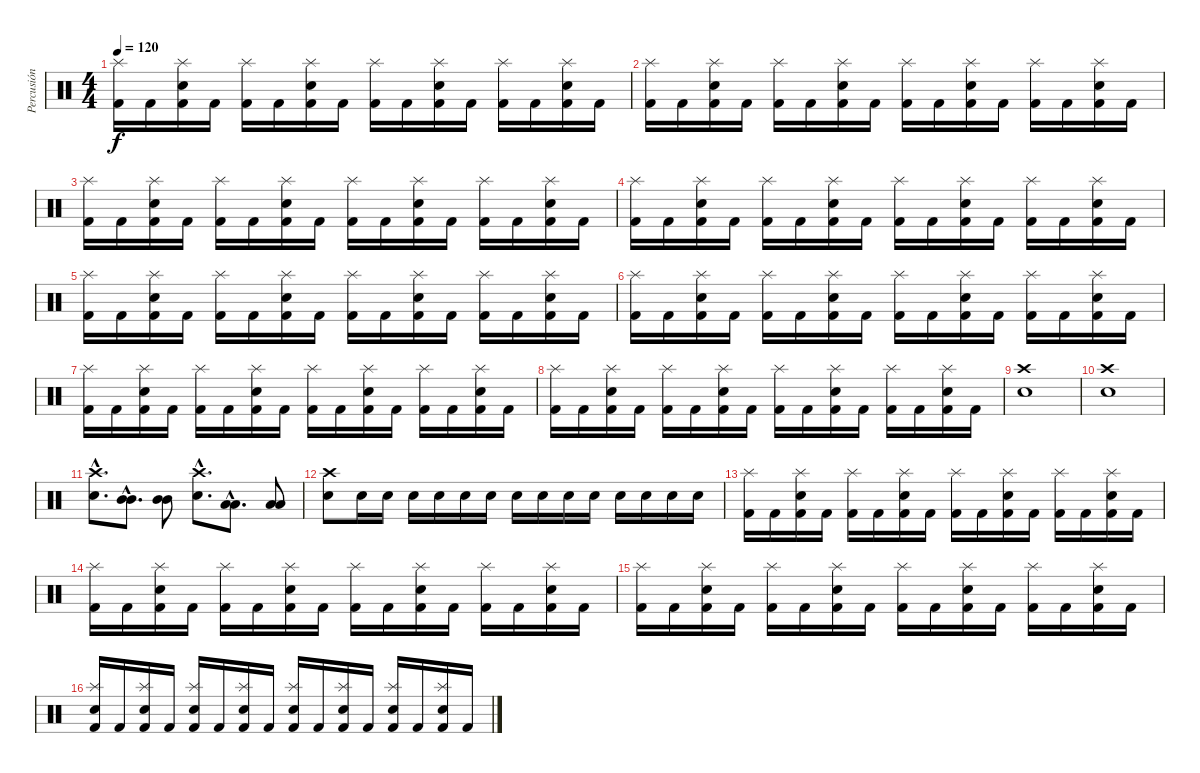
\track ("Percusión" "Percusión") {instrument percussion}
\staff {score}
\articulation defaults
\ts (4 4)
\tempo 120
\clef neutral
\ks c
("Kick (hit) 2" "Splash (hit)").16{dy f} "Kick (hit) 2".16 ("Kick (hit) 2" "Splash (hit)" "Electric Snare (hit)").16 "Kick (hit) 2".16 ("Kick (hit) 2" "Splash (hit)").16 "Kick (hit) 2".16 ("Kick (hit) 2" "Splash (hit)" "Electric Snare (hit)").16 "Kick (hit) 2".16 ("Kick (hit) 2" "Splash (hit)").16 "Kick (hit) 2".16 ("Kick (hit) 2" "Splash (hit)" "Electric Snare (hit)").16 "Kick (hit) 2".16 ("Kick (hit) 2" "Splash (hit)").16 "Kick (hit) 2".16 ("Kick (hit) 2" "Splash (hit)" "Electric Snare (hit)").16 "Kick (hit) 2".16 |
("Kick (hit) 2" "Splash (hit)").16 "Kick (hit) 2".16 ("Kick (hit) 2" "Splash (hit)" "Electric Snare (hit)").16 "Kick (hit) 2".16 ("Kick (hit) 2" "Splash (hit)").16 "Kick (hit) 2".16 ("Kick (hit) 2" "Splash (hit)" "Electric Snare (hit)").16 "Kick (hit) 2".16 ("Kick (hit) 2" "Splash (hit)").16 "Kick (hit) 2".16 ("Kick (hit) 2" "Splash (hit)" "Electric Snare (hit)").16 "Kick (hit) 2".16 ("Kick (hit) 2" "Splash (hit)").16 "Kick (hit) 2".16 ("Kick (hit) 2" "Splash (hit)" "Electric Snare (hit)").16 "Kick (hit) 2".16 |
("Kick (hit) 2" "Splash (hit)").16 "Kick (hit) 2".16 ("Kick (hit) 2" "Splash (hit)" "Electric Snare (hit)").16 "Kick (hit) 2".16 ("Kick (hit) 2" "Splash (hit)").16 "Kick (hit) 2".16 ("Kick (hit) 2" "Splash (hit)" "Electric Snare (hit)").16 "Kick (hit) 2".16 ("Kick (hit) 2" "Splash (hit)").16 "Kick (hit) 2".16 ("Kick (hit) 2" "Splash (hit)" "Electric Snare (hit)").16 "Kick (hit) 2".16 ("Kick (hit) 2" "Splash (hit)").16 "Kick (hit) 2".16 ("Kick (hit) 2" "Splash (hit)" "Electric Snare (hit)").16 "Kick (hit) 2".16 |
("Kick (hit) 2" "Splash (hit)").16 "Kick (hit) 2".16 ("Kick (hit) 2" "Splash (hit)" "Electric Snare (hit)").16 "Kick (hit) 2".16 ("Kick (hit) 2" "Splash (hit)").16 "Kick (hit) 2".16 ("Kick (hit) 2" "Splash (hit)" "Electric Snare (hit)").16 "Kick (hit) 2".16 ("Kick (hit) 2" "Splash (hit)").16 "Kick (hit) 2".16 ("Kick (hit) 2" "Splash (hit)" "Electric Snare (hit)").16 "Kick (hit) 2".16 ("Kick (hit) 2" "Splash (hit)").16 "Kick (hit) 2".16 ("Kick (hit) 2" "Splash (hit)" "Electric Snare (hit)").16 "Kick (hit) 2".16 |
("Kick (hit) 2" "Splash (hit)").16 "Kick (hit) 2".16 ("Kick (hit) 2" "Splash (hit)" "Electric Snare (hit)").16 "Kick (hit) 2".16 ("Kick (hit) 2" "Splash (hit)").16 "Kick (hit) 2".16 ("Kick (hit) 2" "Splash (hit)" "Electric Snare (hit)").16 "Kick (hit) 2".16 ("Kick (hit) 2" "Splash (hit)").16 "Kick (hit) 2".16 ("Kick (hit) 2" "Splash (hit)" "Electric Snare (hit)").16 "Kick (hit) 2".16 ("Kick (hit) 2" "Splash (hit)").16 "Kick (hit) 2".16 ("Kick (hit) 2" "Splash (hit)" "Electric Snare (hit)").16 "Kick (hit) 2".16 |
("Kick (hit) 2" "Splash (hit)").16 "Kick (hit) 2".16 ("Kick (hit) 2" "Splash (hit)" "Electric Snare (hit)").16 "Kick (hit) 2".16 ("Kick (hit) 2" "Splash (hit)").16 "Kick (hit) 2".16 ("Kick (hit) 2" "Splash (hit)" "Electric Snare (hit)").16 "Kick (hit) 2".16 ("Kick (hit) 2" "Splash (hit)").16 "Kick (hit) 2".16 ("Kick (hit) 2" "Splash (hit)" "Electric Snare (hit)").16 "Kick (hit) 2".16 ("Kick (hit) 2" "Splash (hit)").16 "Kick (hit) 2".16 ("Kick (hit) 2" "Splash (hit)" "Electric Snare (hit)").16 "Kick (hit) 2".16 |
("Kick (hit) 2" "Splash (hit)").16 "Kick (hit) 2".16 ("Kick (hit) 2" "Splash (hit)" "Electric Snare (hit)").16 "Kick (hit) 2".16 ("Kick (hit) 2" "Splash (hit)").16 "Kick (hit) 2".16 ("Kick (hit) 2" "Splash (hit)" "Electric Snare (hit)").16 "Kick (hit) 2".16 ("Kick (hit) 2" "Splash (hit)").16 "Kick (hit) 2".16 ("Kick (hit) 2" "Splash (hit)" "Electric Snare (hit)").16 "Kick (hit) 2".16 ("Kick (hit) 2" "Splash (hit)").16 "Kick (hit) 2".16 ("Kick (hit) 2" "Splash (hit)" "Electric Snare (hit)").16 "Kick (hit) 2".16 |
("Kick (hit) 2" "Splash (hit)").16 "Kick (hit) 2".16 ("Kick (hit) 2" "Splash (hit)" "Electric Snare (hit)").16 "Kick (hit) 2".16 ("Kick (hit) 2" "Splash (hit)").16 "Kick (hit) 2".16 ("Kick (hit) 2" "Splash (hit)" "Electric Snare (hit)").16 "Kick (hit) 2".16 ("Kick (hit) 2" "Splash (hit)").16 "Kick (hit) 2".16 ("Kick (hit) 2" "Splash (hit)" "Electric Snare (hit)").16 "Kick (hit) 2".16 ("Kick (hit) 2" "Splash (hit)").16 "Kick (hit) 2".16 ("Kick (hit) 2" "Splash (hit)" "Electric Snare (hit)").16 "Kick (hit) 2".16 |
("Crash high (hit)" "Electric Snare (hit)").1 |
("Crash high (hit)" "Electric Snare (hit)").1 |
("Crash high (hit)"{hac} "Electric Snare (hit)"{hac}).8{d} ("Mid Tom (hit)"{hac} "Mid Tom (hit)"{hac}).8{d} ("Mid Tom (hit)" "Mid Tom (hit)").8 ("Crash high (hit)"{hac} "Electric Snare (hit)"{hac}).8{d} ("Low Tom (hit)"{hac} "Low Tom (hit)"{hac}).8{d} ("Low Tom (hit)" "Low Tom (hit)").8 |
("Crash high (hit)" "Electric Snare (hit)").8 "Electric Snare (hit)".16 "Electric Snare (hit)".16 "Electric Snare (hit)".16 "Electric Snare (hit)".16 "Electric Snare (hit)".16 "Electric Snare (hit)".16 "Electric Snare (hit)".16 "Electric Snare (hit)".16 "Electric Snare (hit)".16 "Electric Snare (hit)".16 "Electric Snare (hit)".16 "Electric Snare (hit)".16 "Electric Snare (hit)".16 "Electric Snare (hit)".16 |
("Kick (hit) 2" "Splash (hit)").16 "Kick (hit) 2".16 ("Kick (hit) 2" "Splash (hit)" "Electric Snare (hit)").16 "Kick (hit) 2".16 ("Kick (hit) 2" "Splash (hit)").16 "Kick (hit) 2".16 ("Kick (hit) 2" "Splash (hit)" "Electric Snare (hit)").16 "Kick (hit) 2".16 ("Kick (hit) 2" "Splash (hit)").16 "Kick (hit) 2".16 ("Kick (hit) 2" "Splash (hit)" "Electric Snare (hit)").16 "Kick (hit) 2".16 ("Kick (hit) 2" "Splash (hit)").16 "Kick (hit) 2".16 ("Kick (hit) 2" "Splash (hit)" "Electric Snare (hit)").16 "Kick (hit) 2".16 |
("Kick (hit) 2" "Splash (hit)").16 "Kick (hit) 2".16 ("Kick (hit) 2" "Splash (hit)" "Electric Snare (hit)").16 "Kick (hit) 2".16 ("Kick (hit) 2" "Splash (hit)").16 "Kick (hit) 2".16 ("Kick (hit) 2" "Splash (hit)" "Electric Snare (hit)").16 "Kick (hit) 2".16 ("Kick (hit) 2" "Splash (hit)").16 "Kick (hit) 2".16 ("Kick (hit) 2" "Splash (hit)" "Electric Snare (hit)").16 "Kick (hit) 2".16 ("Kick (hit) 2" "Splash (hit)").16 "Kick (hit) 2".16 ("Kick (hit) 2" "Splash (hit)" "Electric Snare (hit)").16 "Kick (hit) 2".16 |
("Kick (hit) 2" "Splash (hit)").16 "Kick (hit) 2".16 ("Kick (hit) 2" "Splash (hit)" "Electric Snare (hit)").16 "Kick (hit) 2".16 ("Kick (hit) 2" "Splash (hit)").16 "Kick (hit) 2".16 ("Kick (hit) 2" "Splash (hit)" "Electric Snare (hit)").16 "Kick (hit) 2".16 ("Kick (hit) 2" "Splash (hit)").16 "Kick (hit) 2".16 ("Kick (hit) 2" "Splash (hit)" "Electric Snare (hit)").16 "Kick (hit) 2".16 ("Kick (hit) 2" "Splash (hit)").16 "Kick (hit) 2".16 ("Kick (hit) 2" "Splash (hit)" "Electric Snare (hit)").16 "Kick (hit) 2".16 |
("Kick (hit) 2" "Splash (hit)" "Electric Snare (hit)").16 "Kick (hit) 2".16 ("Kick (hit) 2" "Splash (hit)" "Electric Snare (hit)").16 "Kick (hit) 2".16 ("Kick (hit) 2" "Splash (hit)" "Electric Snare (hit)").16 "Kick (hit) 2".16 ("Kick (hit) 2" "Splash (hit)" "Electric Snare (hit)").16 "Kick (hit) 2".16 ("Kick (hit) 2" "Splash (hit)" "Electric Snare (hit)").16 "Kick (hit) 2".16 ("Kick (hit) 2" "Splash (hit)" "Electric Snare (hit)").16 "Kick (hit) 2".16 ("Kick (hit) 2" "Splash (hit)" "Electric Snare (hit)").16 "Kick (hit) 2".16 ("Kick (hit) 2" "Splash (hit)" "Electric Snare (hit)").16 "Kick (hit) 2".16
